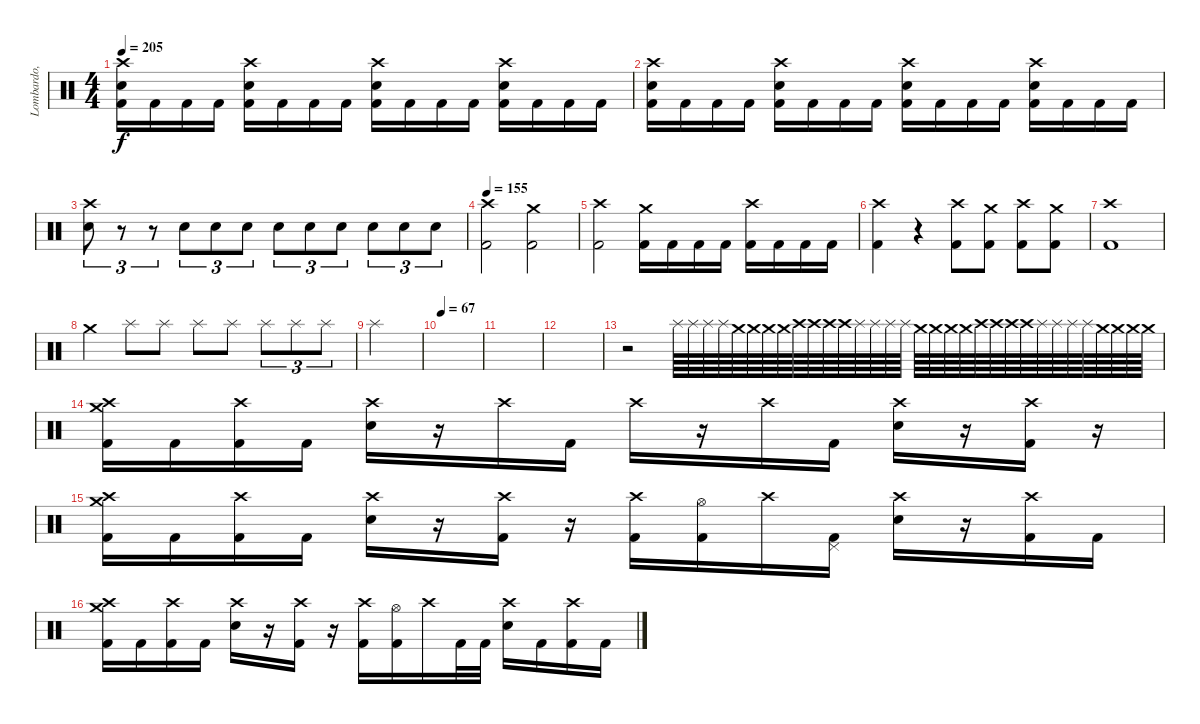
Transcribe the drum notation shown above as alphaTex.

\track ("Lombardo, Dave" "Lombardo, ") {instrument percussion}
\staff {score}
\articulation defaults
\ts (4 4)
\tempo 205
\clef neutral
\ks c
("Crash high (hit)" "Electric Snare (hit)" "Kick (hit) 2").16{dy f} "Kick (hit) 2".16 "Kick (hit) 2".16 "Kick (hit) 2".16 ("Crash high (hit)" "Electric Snare (hit)" "Kick (hit) 2").16 "Kick (hit) 2".16 "Kick (hit) 2".16 "Kick (hit) 2".16 ("Crash high (hit)" "Electric Snare (hit)" "Kick (hit) 2").16 "Kick (hit) 2".16 "Kick (hit) 2".16 "Kick (hit) 2".16 ("Crash high (hit)" "Electric Snare (hit)" "Kick (hit) 2").16 "Kick (hit) 2".16 "Kick (hit) 2".16 "Kick (hit) 2".16 |
("Crash high (hit)" "Electric Snare (hit)" "Kick (hit) 2").16 "Kick (hit) 2".16 "Kick (hit) 2".16 "Kick (hit) 2".16 ("Crash high (hit)" "Electric Snare (hit)" "Kick (hit) 2").16 "Kick (hit) 2".16 "Kick (hit) 2".16 "Kick (hit) 2".16 ("Crash high (hit)" "Electric Snare (hit)" "Kick (hit) 2").16 "Kick (hit) 2".16 "Kick (hit) 2".16 "Kick (hit) 2".16 ("Crash high (hit)" "Electric Snare (hit)" "Kick (hit) 2").16 "Kick (hit) 2".16 "Kick (hit) 2".16 "Kick (hit) 2".16 |
("Crash high (hit)" "Electric Snare (hit)").8{tu (3 2)} r.8{tu (3 2)} r.8{tu (3 2)} "Electric Snare (hit)".8{tu (3 2)} "Electric Snare (hit)".8{tu (3 2)} "Electric Snare (hit)".8{tu (3 2)} "Electric Snare (hit)".8{tu (3 2)} "Electric Snare (hit)".8{tu (3 2)} "Electric Snare (hit)".8{tu (3 2)} "Electric Snare (hit)".8{tu (3 2)} "Electric Snare (hit)".8{tu (3 2)} "Electric Snare (hit)".8{tu (3 2)} |
\tempo 155
("Kick (hit) 2" "Crash high (hit)").2 ("Kick (hit) 2" "Crash medium (hit)").2 |
("Kick (hit) 2" "Crash high (hit)").2 ("Crash medium (hit)" "Kick (hit) 2").16 "Kick (hit) 2".16 "Kick (hit) 2".16 "Kick (hit) 2".16 ("Crash high (hit)" "Kick (hit) 2").16 "Kick (hit) 2".16 "Kick (hit) 2".16 "Kick (hit) 2".16 |
("Crash high (hit)" "Kick (hit) 2").4 r.4 ("Kick (hit) 2" "Crash high (hit)").8 ("Kick (hit) 2" "Crash medium (hit)").8 ("Kick (hit) 2" "Crash high (hit)").8 ("Kick (hit) 2" "Crash medium (hit)").8 |
("Crash high (hit)" "Kick (hit) 2").1 |
"Crash medium (hit)".4 "Splash (hit)".8 "Splash (hit)".8 "Splash (hit)".8 "Splash (hit)".8 "Splash (hit)".8{tu (3 2)} "Splash (hit)".8{tu (3 2)} "Splash (hit)".8{tu (3 2)} |
"Splash (hit)".2 |
\tempo 67
|
|
|
r.2 "Splash (hit)".64 "Splash (hit)".64 "Splash (hit)".64 "Splash (hit)".64 "Crash medium (hit)".64 "Crash medium (hit)".64 "Crash medium (hit)".64 "Crash medium (hit)".64 "Crash high (hit)".64 "Crash high (hit)".64 "Crash high (hit)".64 "Crash high (hit)".64 "Splash (hit)".64 "Splash (hit)".64 "Splash (hit)".64 "Splash (hit)".64 "Crash medium (hit)".64 "Crash medium (hit)".64 "Crash medium (hit)".64 "Crash medium (hit)".64 "Crash high (hit)".64 "Crash high (hit)".64 "Crash high (hit)".64 "Crash high (hit)".64 "Splash (hit)".64 "Splash (hit)".64 "Splash (hit)".64 "Splash (hit)".64 "Crash medium (hit)".64 "Crash medium (hit)".64 "Crash medium (hit)".64 "Crash medium (hit)".64 |
("Kick (hit) 2" "Crash medium (hit)" "Crash high (hit)").16 "Kick (hit) 2".16 ("Kick (hit) 2" "Crash high (hit)").16 "Kick (hit) 2".16 ("Electric Snare (hit)" "Crash high (hit)").16 r.16 "Crash high (hit)".16 "Kick (hit) 2".16 "Crash high (hit)".16 r.16 "Crash high (hit)".16 "Kick (hit) 2".16 ("Electric Snare (hit)" "Crash high (hit)").16 r.16 ("Kick (hit) 2" "Crash high (hit)").16 r.16 |
("Kick (hit) 2" "Crash medium (hit)" "Crash high (hit)").16 "Kick (hit) 2".16 ("Kick (hit) 2" "Crash high (hit)").16 "Kick (hit) 2".16 ("Electric Snare (hit)" "Crash high (hit)").16 r.16 ("Kick (hit) 2" "Crash high (hit)").16 r.16 ("Kick (hit) 2" "Crash high (hit)").16 ("Kick (hit) 2" "Hi-Hat (open)").16 "Crash high (hit)".16 ("Kick (hit) 2" "Pedal Hi-Hat (hit)").16 ("Electric Snare (hit)" "Crash high (hit)").16 r.16 ("Kick (hit) 2" "Crash high (hit)").16 "Kick (hit) 2".16 |
("Kick (hit) 2" "Crash medium (hit)" "Crash high (hit)").16 "Kick (hit) 2".16 ("Kick (hit) 2" "Crash high (hit)").16 "Kick (hit) 2".16 ("Electric Snare (hit)" "Crash high (hit)").16 r.16 ("Kick (hit) 2" "Crash high (hit)").16 r.16 ("Kick (hit) 2" "Crash high (hit)").16 ("Kick (hit) 2" "Hi-Hat (open)").16 "Crash high (hit)".16 "Kick (hit) 2".32 "Kick (hit) 2".32 ("Electric Snare (hit)" "Crash high (hit)").16 "Kick (hit) 2".16 ("Kick (hit) 2" "Crash high (hit)").16 "Kick (hit) 2".16
